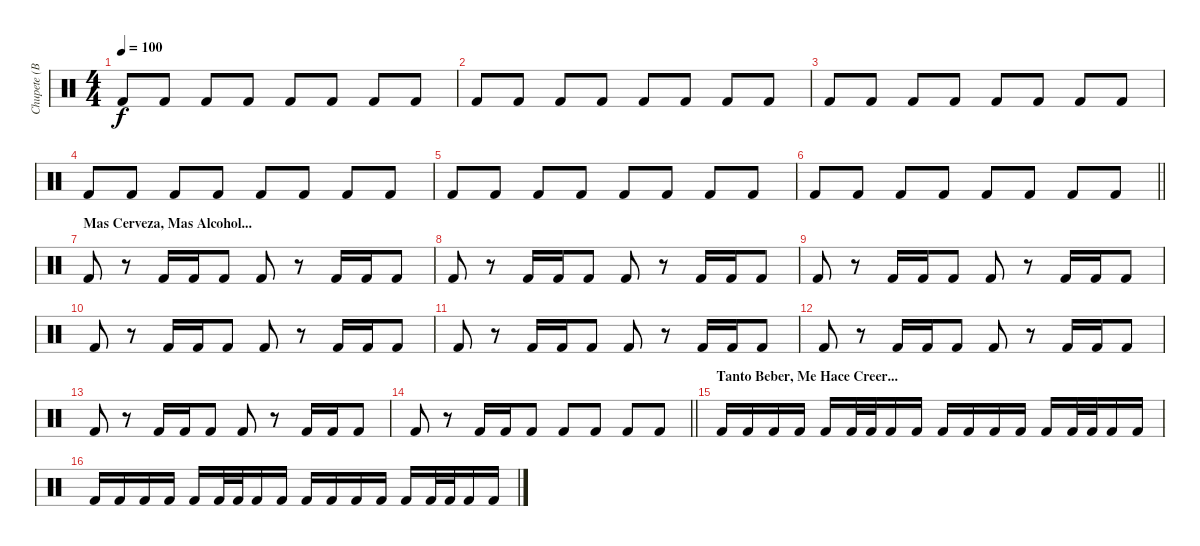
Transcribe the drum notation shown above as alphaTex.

\track ("Chupete (Bateria Bombo)" "Chupete (B") {instrument percussion}
\staff {score}
\articulation defaults
\ts (4 4)
\tempo 100
\clef neutral
\ks c "Kick (hit) 2".8{dy f} "Kick (hit) 2".8 "Kick (hit) 2".8 "Kick (hit) 2".8 "Kick (hit) 2".8 "Kick (hit) 2".8 "Kick (hit) 2".8 "Kick (hit) 2".8
|
"Kick (hit) 2".8 "Kick (hit) 2".8 "Kick (hit) 2".8 "Kick (hit) 2".8 "Kick (hit) 2".8 "Kick (hit) 2".8 "Kick (hit) 2".8 "Kick (hit) 2".8 |
"Kick (hit) 2".8 "Kick (hit) 2".8 "Kick (hit) 2".8 "Kick (hit) 2".8 "Kick (hit) 2".8 "Kick (hit) 2".8 "Kick (hit) 2".8 "Kick (hit) 2".8 |
"Kick (hit) 2".8 "Kick (hit) 2".8 "Kick (hit) 2".8 "Kick (hit) 2".8 "Kick (hit) 2".8 "Kick (hit) 2".8 "Kick (hit) 2".8 "Kick (hit) 2".8 |
"Kick (hit) 2".8 "Kick (hit) 2".8 "Kick (hit) 2".8 "Kick (hit) 2".8 "Kick (hit) 2".8 "Kick (hit) 2".8 "Kick (hit) 2".8 "Kick (hit) 2".8 |
\barLineRight lightlight "Kick (hit) 2".8 "Kick (hit) 2".8 "Kick (hit) 2".8 "Kick (hit) 2".8 "Kick (hit) 2".8 "Kick (hit) 2".8 "Kick (hit) 2".8 "Kick (hit) 2".8
|
\section ("" "Mas Cerveza, Mas Alcohol...")
"Kick (hit) 2".8 r.8 "Kick (hit) 2".16 "Kick (hit) 2".16 "Kick (hit) 2".8 "Kick (hit) 2".8 r.8 "Kick (hit) 2".16 "Kick (hit) 2".16 "Kick (hit) 2".8 |
"Kick (hit) 2".8 r.8 "Kick (hit) 2".16 "Kick (hit) 2".16 "Kick (hit) 2".8 "Kick (hit) 2".8 r.8 "Kick (hit) 2".16 "Kick (hit) 2".16 "Kick (hit) 2".8 |
"Kick (hit) 2".8 r.8 "Kick (hit) 2".16 "Kick (hit) 2".16 "Kick (hit) 2".8 "Kick (hit) 2".8 r.8 "Kick (hit) 2".16 "Kick (hit) 2".16 "Kick (hit) 2".8 |
"Kick (hit) 2".8 r.8 "Kick (hit) 2".16 "Kick (hit) 2".16 "Kick (hit) 2".8 "Kick (hit) 2".8 r.8 "Kick (hit) 2".16 "Kick (hit) 2".16 "Kick (hit) 2".8 |
"Kick (hit) 2".8 r.8 "Kick (hit) 2".16 "Kick (hit) 2".16 "Kick (hit) 2".8 "Kick (hit) 2".8 r.8 "Kick (hit) 2".16 "Kick (hit) 2".16 "Kick (hit) 2".8 |
"Kick (hit) 2".8 r.8 "Kick (hit) 2".16 "Kick (hit) 2".16 "Kick (hit) 2".8 "Kick (hit) 2".8 r.8 "Kick (hit) 2".16 "Kick (hit) 2".16 "Kick (hit) 2".8 |
"Kick (hit) 2".8 r.8 "Kick (hit) 2".16 "Kick (hit) 2".16 "Kick (hit) 2".8 "Kick (hit) 2".8 r.8 "Kick (hit) 2".16 "Kick (hit) 2".16 "Kick (hit) 2".8 |
\barLineRight lightlight "Kick (hit) 2".8
r.8 "Kick (hit) 2".16 "Kick (hit) 2".16 "Kick (hit) 2".8 "Kick (hit) 2".8 "Kick (hit) 2".8 "Kick (hit) 2".8 "Kick (hit) 2".8 |
\section ("" "Tanto Beber, Me Hace Creer...")
"Kick (hit) 2".16 "Kick (hit) 2".16 "Kick (hit) 2".16 "Kick (hit) 2".16 "Kick (hit) 2".16 "Kick (hit) 2".32 "Kick (hit) 2".32 "Kick (hit) 2".16 "Kick (hit) 2".16 "Kick (hit) 2".16 "Kick (hit) 2".16 "Kick (hit) 2".16 "Kick (hit) 2".16 "Kick (hit) 2".16 "Kick (hit) 2".32 "Kick (hit) 2".32 "Kick (hit) 2".16 "Kick (hit) 2".16 |
"Kick (hit) 2".16 "Kick (hit) 2".16 "Kick (hit) 2".16 "Kick (hit) 2".16 "Kick (hit) 2".16 "Kick (hit) 2".32 "Kick (hit) 2".32 "Kick (hit) 2".16 "Kick (hit) 2".16 "Kick (hit) 2".16 "Kick (hit) 2".16 "Kick (hit) 2".16 "Kick (hit) 2".16 "Kick (hit) 2".16 "Kick (hit) 2".32 "Kick (hit) 2".32 "Kick (hit) 2".16 "Kick (hit) 2".16
